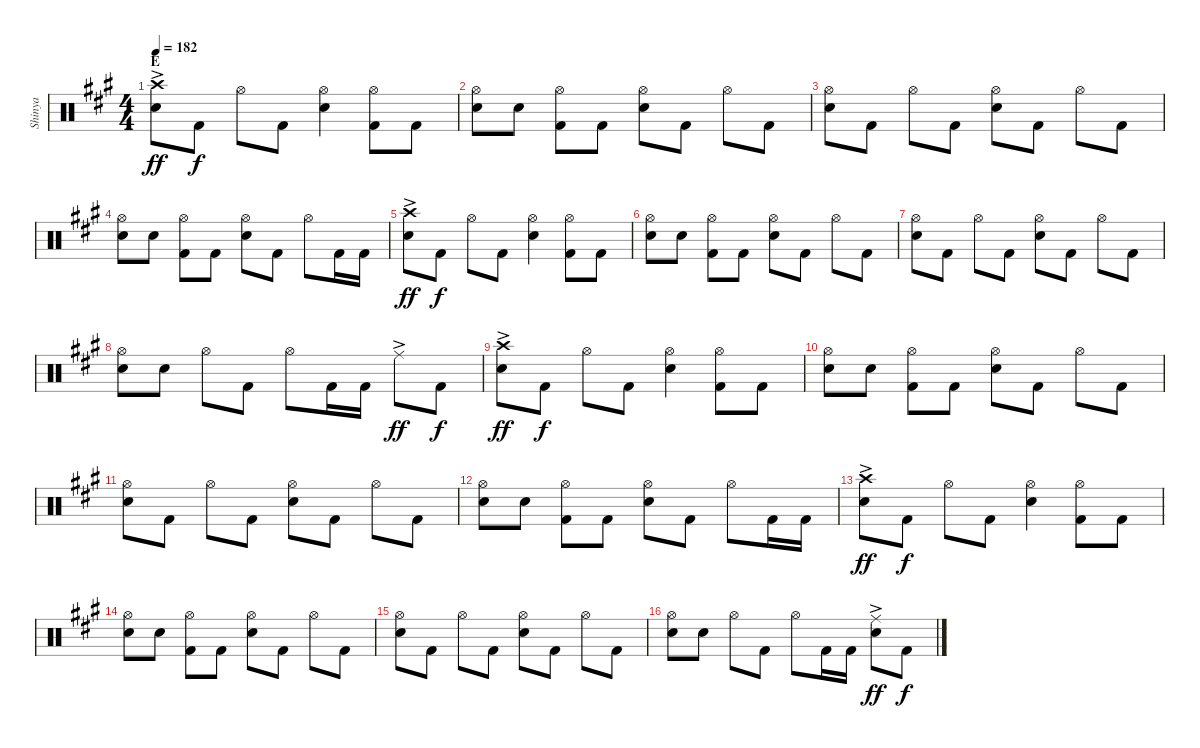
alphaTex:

\track ("Shinya" "Shinya") {instrument percussion}
\staff {score}
\articulation defaults
\ts (4 4)
\section ("" "E")
\tempo 182
\clef neutral
\ks a
("Crash high (hit)"{ac} "Snare (hit) 2").8{dy ff} "Kick (hit) 2".8{dy f} "Hi-Hat (open)".8 "Kick (hit) 2".8 ("Hi-Hat (open)" "Snare (hit) 2").4 ("Hi-Hat (open)" "Kick (hit) 2").8 "Kick (hit) 2".8 |
("Hi-Hat (open)" "Snare (hit) 2").8 "Snare (hit) 2".8 ("Hi-Hat (open)" "Kick (hit) 2").8 "Kick (hit) 2".8 ("Hi-Hat (open)" "Snare (hit) 2").8 "Kick (hit) 2".8 "Hi-Hat (open)".8 "Kick (hit) 2".8 |
("Hi-Hat (open)" "Snare (hit) 2").8 "Kick (hit) 2".8 "Hi-Hat (open)".8 "Kick (hit) 2".8 ("Hi-Hat (open)" "Snare (hit) 2").8 "Kick (hit) 2".8 "Hi-Hat (open)".8 "Kick (hit) 2".8 |
("Hi-Hat (open)" "Snare (hit) 2").8 "Snare (hit) 2".8 ("Hi-Hat (open)" "Kick (hit) 2").8 "Kick (hit) 2".8 ("Hi-Hat (open)" "Snare (hit) 2").8 "Kick (hit) 2".8 "Hi-Hat (open)".8 "Kick (hit) 2".16 "Kick (hit) 2".16 |
("Crash high (hit)"{ac} "Snare (hit) 2").8{dy ff} "Kick (hit) 2".8{dy f} "Hi-Hat (open)".8 "Kick (hit) 2".8 ("Hi-Hat (open)" "Snare (hit) 2").4 ("Hi-Hat (open)" "Kick (hit) 2").8 "Kick (hit) 2".8 |
("Hi-Hat (open)" "Snare (hit) 2").8 "Snare (hit) 2".8 ("Hi-Hat (open)" "Kick (hit) 2").8 "Kick (hit) 2".8 ("Hi-Hat (open)" "Snare (hit) 2").8 "Kick (hit) 2".8 "Hi-Hat (open)".8 "Kick (hit) 2".8 |
("Hi-Hat (open)" "Snare (hit) 2").8 "Kick (hit) 2".8 "Hi-Hat (open)".8 "Kick (hit) 2".8 ("Hi-Hat (open)" "Snare (hit) 2").8 "Kick (hit) 2".8 "Hi-Hat (open)".8 "Kick (hit) 2".8 |
("Hi-Hat (open)" "Snare (hit) 2").8 "Snare (hit) 2".8 "Hi-Hat (open)".8 "Kick (hit) 2".8 "Hi-Hat (open)".8 "Kick (hit) 2".16 "Kick (hit) 2".16 "Ride (middle)"{ac}.8{dy ff} "Kick (hit) 2".8{dy f} |
("Crash high (hit)"{ac} "Snare (hit) 2").8{dy ff} "Kick (hit) 2".8{dy f} "Hi-Hat (open)".8 "Kick (hit) 2".8 ("Hi-Hat (open)" "Snare (hit) 2").4 ("Hi-Hat (open)" "Kick (hit) 2").8 "Kick (hit) 2".8 |
("Hi-Hat (open)" "Snare (hit) 2").8 "Snare (hit) 2".8 ("Hi-Hat (open)" "Kick (hit) 2").8 "Kick (hit) 2".8 ("Hi-Hat (open)" "Snare (hit) 2").8 "Kick (hit) 2".8 "Hi-Hat (open)".8 "Kick (hit) 2".8 |
("Hi-Hat (open)" "Snare (hit) 2").8 "Kick (hit) 2".8 "Hi-Hat (open)".8 "Kick (hit) 2".8 ("Hi-Hat (open)" "Snare (hit) 2").8 "Kick (hit) 2".8 "Hi-Hat (open)".8 "Kick (hit) 2".8 |
("Hi-Hat (open)" "Snare (hit) 2").8 "Snare (hit) 2".8 ("Hi-Hat (open)" "Kick (hit) 2").8 "Kick (hit) 2".8 ("Hi-Hat (open)" "Snare (hit) 2").8 "Kick (hit) 2".8 "Hi-Hat (open)".8 "Kick (hit) 2".16 "Kick (hit) 2".16 |
("Crash high (hit)"{ac} "Snare (hit) 2").8{dy ff} "Kick (hit) 2".8{dy f} "Hi-Hat (open)".8 "Kick (hit) 2".8 ("Hi-Hat (open)" "Snare (hit) 2").4 ("Hi-Hat (open)" "Kick (hit) 2").8 "Kick (hit) 2".8 |
("Hi-Hat (open)" "Snare (hit) 2").8 "Snare (hit) 2".8 ("Hi-Hat (open)" "Kick (hit) 2").8 "Kick (hit) 2".8 ("Hi-Hat (open)" "Snare (hit) 2").8 "Kick (hit) 2".8 "Hi-Hat (open)".8 "Kick (hit) 2".8 |
("Hi-Hat (open)" "Snare (hit) 2").8 "Kick (hit) 2".8 "Hi-Hat (open)".8 "Kick (hit) 2".8 ("Hi-Hat (open)" "Snare (hit) 2").8 "Kick (hit) 2".8 "Hi-Hat (open)".8 "Kick (hit) 2".8 |
("Hi-Hat (open)" "Snare (hit) 2").8 "Snare (hit) 2".8 "Hi-Hat (open)".8 "Kick (hit) 2".8 "Hi-Hat (open)".8 "Kick (hit) 2".16 "Kick (hit) 2".16 ("Ride (middle)"{ac} "Snare (hit) 2").8{dy ff} "Kick (hit) 2".8{dy f}
